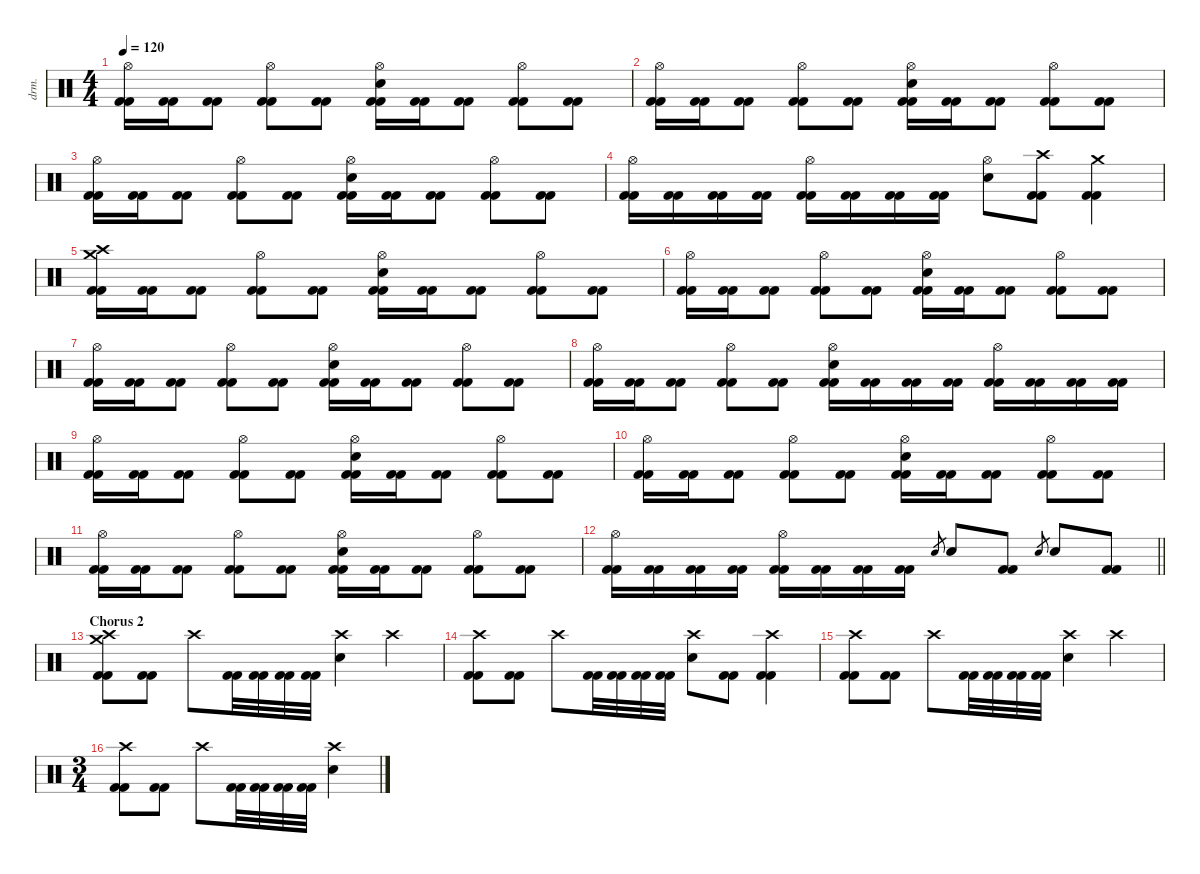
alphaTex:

\defaultSystemsLayout 4
\hideDynamics
\bracketExtendMode nobrackets
\otherSystemsTrackNameOrientation horizontal
\track ("Chris Adler" "drm.") {instrument percussion}
\staff {score}
\articulation defaults
\ts (4 4)
\tempo 120
\clef neutral
\ks c
("Hi-Hat (open)" "Kick (hit) 2" "Kick (hit) 2").16{dy f} ("Kick (hit) 2" "Kick (hit) 2").16 ("Kick (hit) 2" "Kick (hit) 2").8 ("Hi-Hat (open)" "Kick (hit) 2" "Kick (hit) 2").8 ("Kick (hit) 2" "Kick (hit) 2").8 ("Hi-Hat (open)" "Snare (hit) 2" "Kick (hit) 2" "Kick (hit) 2").16 ("Kick (hit) 2" "Kick (hit) 2").16 ("Kick (hit) 2" "Kick (hit) 2").8 ("Hi-Hat (open)" "Kick (hit) 2" "Kick (hit) 2").8 ("Kick (hit) 2" "Kick (hit) 2").8 |
("Hi-Hat (open)" "Kick (hit) 2" "Kick (hit) 2").16 ("Kick (hit) 2" "Kick (hit) 2").16 ("Kick (hit) 2" "Kick (hit) 2").8 ("Hi-Hat (open)" "Kick (hit) 2" "Kick (hit) 2").8 ("Kick (hit) 2" "Kick (hit) 2").8 ("Hi-Hat (open)" "Snare (hit) 2" "Kick (hit) 2" "Kick (hit) 2").16 ("Kick (hit) 2" "Kick (hit) 2").16 ("Kick (hit) 2" "Kick (hit) 2").8 ("Hi-Hat (open)" "Kick (hit) 2" "Kick (hit) 2").8 ("Kick (hit) 2" "Kick (hit) 2").8 |
("Hi-Hat (open)" "Kick (hit) 2" "Kick (hit) 2").16 ("Kick (hit) 2" "Kick (hit) 2").16 ("Kick (hit) 2" "Kick (hit) 2").8 ("Hi-Hat (open)" "Kick (hit) 2" "Kick (hit) 2").8 ("Kick (hit) 2" "Kick (hit) 2").8 ("Hi-Hat (open)" "Snare (hit) 2" "Kick (hit) 2" "Kick (hit) 2").16 ("Kick (hit) 2" "Kick (hit) 2").16 ("Kick (hit) 2" "Kick (hit) 2").8 ("Hi-Hat (open)" "Kick (hit) 2" "Kick (hit) 2").8 ("Kick (hit) 2" "Kick (hit) 2").8 |
("Hi-Hat (open)" "Kick (hit) 2" "Kick (hit) 2").16 ("Kick (hit) 2" "Kick (hit) 2").16 ("Kick (hit) 2" "Kick (hit) 2").16 ("Kick (hit) 2" "Kick (hit) 2").16 ("Hi-Hat (open)" "Kick (hit) 2" "Kick (hit) 2").16 ("Kick (hit) 2" "Kick (hit) 2").16 ("Kick (hit) 2" "Kick (hit) 2").16 ("Kick (hit) 2" "Kick (hit) 2").16 ("Hi-Hat (open)" "Snare (hit) 2").8 ("Crash high (hit)" "Kick (hit) 2" "Kick (hit) 2").8 ("Crash medium (hit)" "Kick (hit) 2" "Kick (hit) 2").4 |
("Crash medium (hit)" "Crash high (hit)" "Kick (hit) 2" "Kick (hit) 2").16 ("Kick (hit) 2" "Kick (hit) 2").16 ("Kick (hit) 2" "Kick (hit) 2").8 ("Hi-Hat (open)" "Kick (hit) 2" "Kick (hit) 2").8 ("Kick (hit) 2" "Kick (hit) 2").8 ("Hi-Hat (open)" "Snare (hit) 2" "Kick (hit) 2" "Kick (hit) 2").16 ("Kick (hit) 2" "Kick (hit) 2").16 ("Kick (hit) 2" "Kick (hit) 2").8 ("Hi-Hat (open)" "Kick (hit) 2" "Kick (hit) 2").8 ("Kick (hit) 2" "Kick (hit) 2").8 |
("Hi-Hat (open)" "Kick (hit) 2" "Kick (hit) 2").16 ("Kick (hit) 2" "Kick (hit) 2").16 ("Kick (hit) 2" "Kick (hit) 2").8 ("Hi-Hat (open)" "Kick (hit) 2" "Kick (hit) 2").8 ("Kick (hit) 2" "Kick (hit) 2").8 ("Hi-Hat (open)" "Snare (hit) 2" "Kick (hit) 2" "Kick (hit) 2").16 ("Kick (hit) 2" "Kick (hit) 2").16 ("Kick (hit) 2" "Kick (hit) 2").8 ("Hi-Hat (open)" "Kick (hit) 2" "Kick (hit) 2").8 ("Kick (hit) 2" "Kick (hit) 2").8 |
("Hi-Hat (open)" "Kick (hit) 2" "Kick (hit) 2").16 ("Kick (hit) 2" "Kick (hit) 2").16 ("Kick (hit) 2" "Kick (hit) 2").8 ("Hi-Hat (open)" "Kick (hit) 2" "Kick (hit) 2").8 ("Kick (hit) 2" "Kick (hit) 2").8 ("Hi-Hat (open)" "Snare (hit) 2" "Kick (hit) 2" "Kick (hit) 2").16 ("Kick (hit) 2" "Kick (hit) 2").16 ("Kick (hit) 2" "Kick (hit) 2").8 ("Hi-Hat (open)" "Kick (hit) 2" "Kick (hit) 2").8 ("Kick (hit) 2" "Kick (hit) 2").8 |
("Hi-Hat (open)" "Kick (hit) 2" "Kick (hit) 2").16 ("Kick (hit) 2" "Kick (hit) 2").16 ("Kick (hit) 2" "Kick (hit) 2").8 ("Hi-Hat (open)" "Kick (hit) 2" "Kick (hit) 2").8 ("Kick (hit) 2" "Kick (hit) 2").8 ("Hi-Hat (open)" "Snare (hit) 2" "Kick (hit) 2" "Kick (hit) 2").16 ("Kick (hit) 2" "Kick (hit) 2").16 ("Kick (hit) 2" "Kick (hit) 2").16 ("Kick (hit) 2" "Kick (hit) 2").16 ("Hi-Hat (open)" "Kick (hit) 2" "Kick (hit) 2").16 ("Kick (hit) 2" "Kick (hit) 2").16 ("Kick (hit) 2" "Kick (hit) 2").16 ("Kick (hit) 2" "Kick (hit) 2").16 |
("Hi-Hat (open)" "Kick (hit) 2" "Kick (hit) 2").16 ("Kick (hit) 2" "Kick (hit) 2").16 ("Kick (hit) 2" "Kick (hit) 2").8 ("Hi-Hat (open)" "Kick (hit) 2" "Kick (hit) 2").8 ("Kick (hit) 2" "Kick (hit) 2").8 ("Hi-Hat (open)" "Snare (hit) 2" "Kick (hit) 2" "Kick (hit) 2").16 ("Kick (hit) 2" "Kick (hit) 2").16 ("Kick (hit) 2" "Kick (hit) 2").8 ("Hi-Hat (open)" "Kick (hit) 2" "Kick (hit) 2").8 ("Kick (hit) 2" "Kick (hit) 2").8 |
("Hi-Hat (open)" "Kick (hit) 2" "Kick (hit) 2").16 ("Kick (hit) 2" "Kick (hit) 2").16 ("Kick (hit) 2" "Kick (hit) 2").8 ("Hi-Hat (open)" "Kick (hit) 2" "Kick (hit) 2").8 ("Kick (hit) 2" "Kick (hit) 2").8 ("Hi-Hat (open)" "Snare (hit) 2" "Kick (hit) 2" "Kick (hit) 2").16 ("Kick (hit) 2" "Kick (hit) 2").16 ("Kick (hit) 2" "Kick (hit) 2").8 ("Hi-Hat (open)" "Kick (hit) 2" "Kick (hit) 2").8 ("Kick (hit) 2" "Kick (hit) 2").8 |
("Hi-Hat (open)" "Kick (hit) 2" "Kick (hit) 2").16 ("Kick (hit) 2" "Kick (hit) 2").16 ("Kick (hit) 2" "Kick (hit) 2").8 ("Hi-Hat (open)" "Kick (hit) 2" "Kick (hit) 2").8 ("Kick (hit) 2" "Kick (hit) 2").8 ("Hi-Hat (open)" "Snare (hit) 2" "Kick (hit) 2" "Kick (hit) 2").16 ("Kick (hit) 2" "Kick (hit) 2").16 ("Kick (hit) 2" "Kick (hit) 2").8 ("Hi-Hat (open)" "Kick (hit) 2" "Kick (hit) 2").8 ("Kick (hit) 2" "Kick (hit) 2").8 |
\barLineRight lightlight
("Hi-Hat (open)" "Kick (hit) 2" "Kick (hit) 2").16 ("Kick (hit) 2" "Kick (hit) 2").16 ("Kick (hit) 2" "Kick (hit) 2").16 ("Kick (hit) 2" "Kick (hit) 2").16 ("Hi-Hat (open)" "Kick (hit) 2" "Kick (hit) 2").16 ("Kick (hit) 2" "Kick (hit) 2").16 ("Kick (hit) 2" "Kick (hit) 2").16 ("Kick (hit) 2" "Kick (hit) 2").16 "Electric Snare (hit)".8{gr dy mf} "Snare (hit) 2".8{dy f} ("Kick (hit) 2" "Kick (hit) 2").8 "Electric Snare (hit)".8{gr dy mf} "Snare (hit) 2".8{dy f} ("Kick (hit) 2" "Kick (hit) 2").8 |
\section ("" "Chorus 2")
("Crash medium (hit)" "Crash high (hit)" "Kick (hit) 2" "Kick (hit) 2").8 ("Kick (hit) 2" "Kick (hit) 2").8 "Crash high (hit)".8 ("Kick (hit) 2" "Kick (hit) 2").32 ("Kick (hit) 2" "Kick (hit) 2").32 ("Kick (hit) 2" "Kick (hit) 2").32 ("Kick (hit) 2" "Kick (hit) 2").32 ("Crash high (hit)" "Snare (hit) 2").4 "Crash high (hit)".4 |
("Crash high (hit)" "Kick (hit) 2" "Kick (hit) 2").8 ("Kick (hit) 2" "Kick (hit) 2").8 "Crash high (hit)".8 ("Kick (hit) 2" "Kick (hit) 2").32 ("Kick (hit) 2" "Kick (hit) 2").32 ("Kick (hit) 2" "Kick (hit) 2").32 ("Kick (hit) 2" "Kick (hit) 2").32 ("Crash high (hit)" "Snare (hit) 2").8 ("Kick (hit) 2" "Kick (hit) 2").8 ("Crash high (hit)" "Kick (hit) 2" "Kick (hit) 2").4 |
("Crash high (hit)" "Kick (hit) 2" "Kick (hit) 2").8 ("Kick (hit) 2" "Kick (hit) 2").8 "Crash high (hit)".8 ("Kick (hit) 2" "Kick (hit) 2").32 ("Kick (hit) 2" "Kick (hit) 2").32 ("Kick (hit) 2" "Kick (hit) 2").32 ("Kick (hit) 2" "Kick (hit) 2").32 ("Crash high (hit)" "Snare (hit) 2").4 "Crash high (hit)".4 |
\ts (3 4)
\beaming (8 2 2 2)
("Crash high (hit)" "Kick (hit) 2" "Kick (hit) 2").8 ("Kick (hit) 2" "Kick (hit) 2").8 "Crash high (hit)".8 ("Kick (hit) 2" "Kick (hit) 2").32 ("Kick (hit) 2" "Kick (hit) 2").32 ("Kick (hit) 2" "Kick (hit) 2").32 ("Kick (hit) 2" "Kick (hit) 2").32 ("Crash high (hit)" "Snare (hit) 2").4
